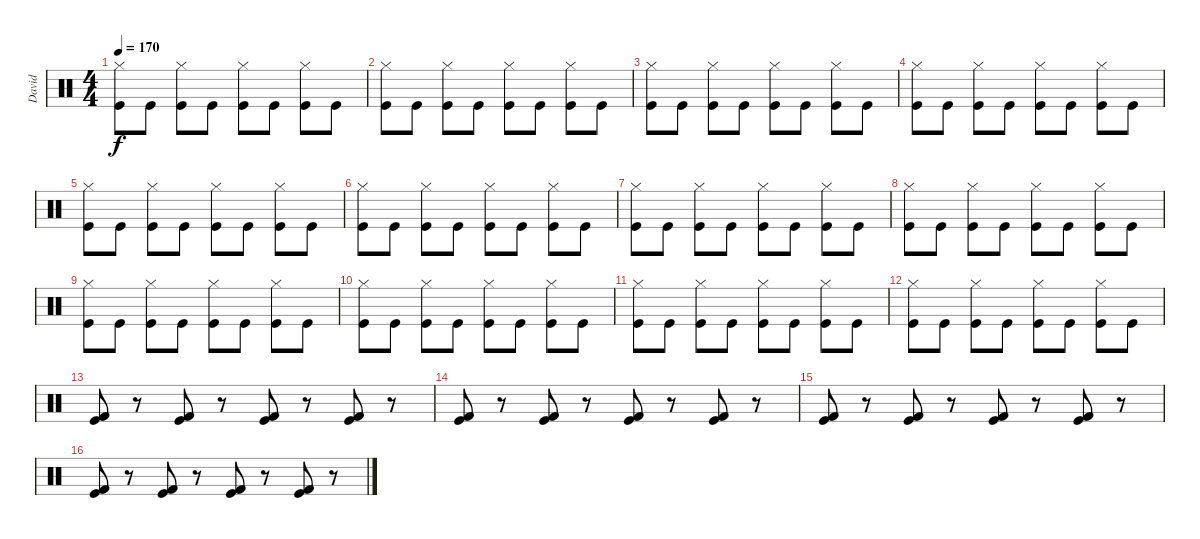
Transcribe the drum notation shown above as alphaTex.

\track ("David" "David") {instrument percussion}
\staff {score}
\articulation defaults
\ts (4 4)
\tempo 170
\clef neutral
\ks c
("Hi-Hat (closed)" "Kick (hit)").8{dy f} "Kick (hit)".8 ("Hi-Hat (closed)" "Kick (hit)").8 "Kick (hit)".8 ("Hi-Hat (closed)" "Kick (hit)").8 "Kick (hit)".8 ("Hi-Hat (closed)" "Kick (hit)").8 "Kick (hit)".8 |
("Hi-Hat (closed)" "Kick (hit)").8 "Kick (hit)".8 ("Hi-Hat (closed)" "Kick (hit)").8 "Kick (hit)".8 ("Hi-Hat (closed)" "Kick (hit)").8 "Kick (hit)".8 ("Hi-Hat (closed)" "Kick (hit)").8 "Kick (hit)".8 |
("Hi-Hat (closed)" "Kick (hit)").8 "Kick (hit)".8 ("Hi-Hat (closed)" "Kick (hit)").8 "Kick (hit)".8 ("Hi-Hat (closed)" "Kick (hit)").8 "Kick (hit)".8 ("Hi-Hat (closed)" "Kick (hit)").8 "Kick (hit)".8 |
("Hi-Hat (closed)" "Kick (hit)").8 "Kick (hit)".8 ("Hi-Hat (closed)" "Kick (hit)").8 "Kick (hit)".8 ("Hi-Hat (closed)" "Kick (hit)").8 "Kick (hit)".8 ("Hi-Hat (closed)" "Kick (hit)").8 "Kick (hit)".8 |
("Hi-Hat (closed)" "Kick (hit)").8 "Kick (hit)".8 ("Hi-Hat (closed)" "Kick (hit)").8 "Kick (hit)".8 ("Hi-Hat (closed)" "Kick (hit)").8 "Kick (hit)".8 ("Hi-Hat (closed)" "Kick (hit)").8 "Kick (hit)".8 |
("Hi-Hat (closed)" "Kick (hit)").8 "Kick (hit)".8 ("Hi-Hat (closed)" "Kick (hit)").8 "Kick (hit)".8 ("Hi-Hat (closed)" "Kick (hit)").8 "Kick (hit)".8 ("Hi-Hat (closed)" "Kick (hit)").8 "Kick (hit)".8 |
("Hi-Hat (closed)" "Kick (hit)").8 "Kick (hit)".8 ("Hi-Hat (closed)" "Kick (hit)").8 "Kick (hit)".8 ("Hi-Hat (closed)" "Kick (hit)").8 "Kick (hit)".8 ("Hi-Hat (closed)" "Kick (hit)").8 "Kick (hit)".8 |
("Hi-Hat (closed)" "Kick (hit)").8 "Kick (hit)".8 ("Hi-Hat (closed)" "Kick (hit)").8 "Kick (hit)".8 ("Hi-Hat (closed)" "Kick (hit)").8 "Kick (hit)".8 ("Hi-Hat (closed)" "Kick (hit)").8 "Kick (hit)".8 |
("Hi-Hat (closed)" "Kick (hit)").8 "Kick (hit)".8 ("Hi-Hat (closed)" "Kick (hit)").8 "Kick (hit)".8 ("Hi-Hat (closed)" "Kick (hit)").8 "Kick (hit)".8 ("Hi-Hat (closed)" "Kick (hit)").8 "Kick (hit)".8 |
("Hi-Hat (closed)" "Kick (hit)").8 "Kick (hit)".8 ("Hi-Hat (closed)" "Kick (hit)").8 "Kick (hit)".8 ("Hi-Hat (closed)" "Kick (hit)").8 "Kick (hit)".8 ("Hi-Hat (closed)" "Kick (hit)").8 "Kick (hit)".8 |
("Hi-Hat (closed)" "Kick (hit)").8 "Kick (hit)".8 ("Hi-Hat (closed)" "Kick (hit)").8 "Kick (hit)".8 ("Hi-Hat (closed)" "Kick (hit)").8 "Kick (hit)".8 ("Hi-Hat (closed)" "Kick (hit)").8 "Kick (hit)".8 |
("Hi-Hat (closed)" "Kick (hit)").8 "Kick (hit)".8 ("Hi-Hat (closed)" "Kick (hit)").8 "Kick (hit)".8 ("Hi-Hat (closed)" "Kick (hit)").8 "Kick (hit)".8 ("Hi-Hat (closed)" "Kick (hit)").8 "Kick (hit)".8 |
("Kick (hit) 2" "Kick (hit)").8 r.8 ("Kick (hit) 2" "Kick (hit)").8 r.8 ("Kick (hit) 2" "Kick (hit)").8 r.8 ("Kick (hit) 2" "Kick (hit)").8 r.8 |
("Kick (hit) 2" "Kick (hit)").8 r.8 ("Kick (hit) 2" "Kick (hit)").8 r.8 ("Kick (hit) 2" "Kick (hit)").8 r.8 ("Kick (hit) 2" "Kick (hit)").8 r.8 |
("Kick (hit) 2" "Kick (hit)").8 r.8 ("Kick (hit) 2" "Kick (hit)").8 r.8 ("Kick (hit) 2" "Kick (hit)").8 r.8 ("Kick (hit) 2" "Kick (hit)").8 r.8 |
("Kick (hit) 2" "Kick (hit)").8 r.8 ("Kick (hit) 2" "Kick (hit)").8 r.8 ("Kick (hit) 2" "Kick (hit)").8 r.8 ("Kick (hit) 2" "Kick (hit)").8 r.8
